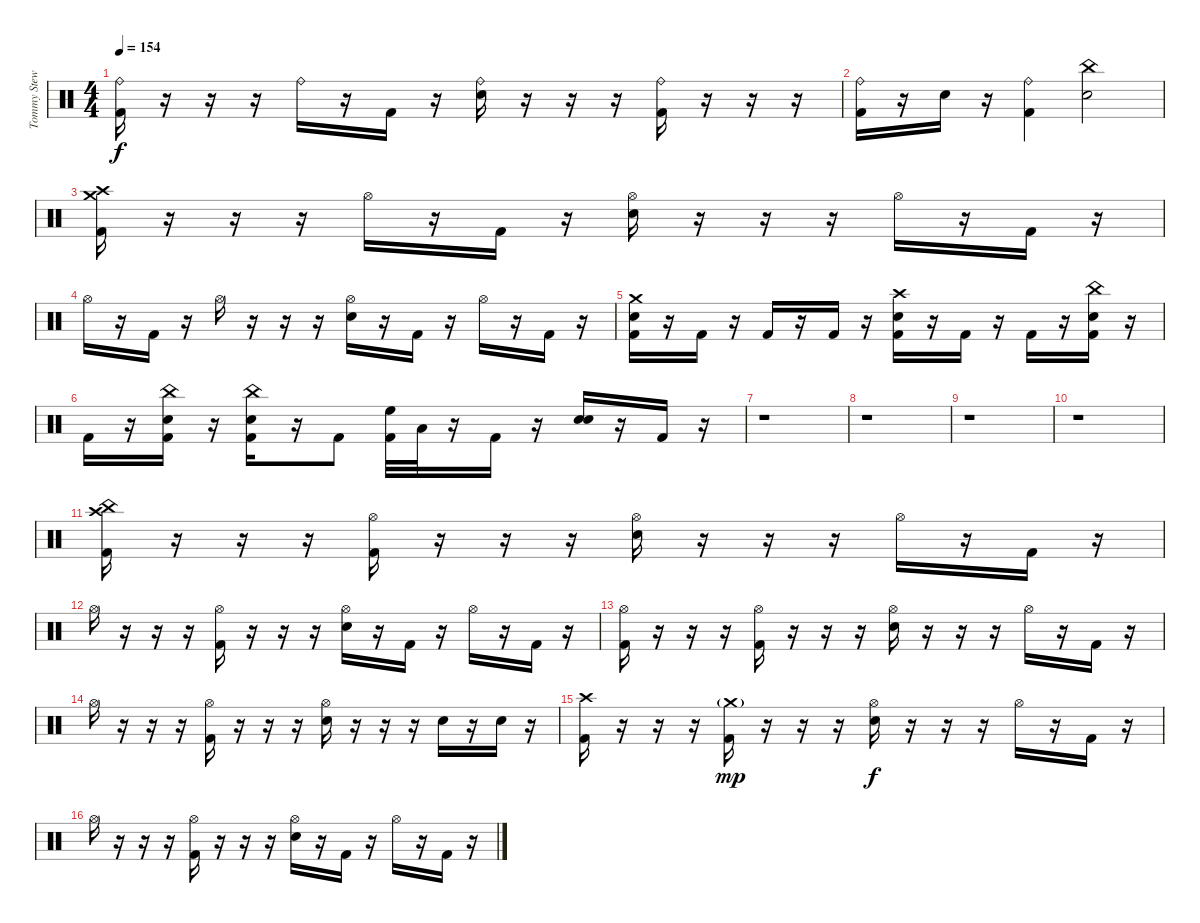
\track ("Tommy Stewart" "Tommy Stew") {instrument percussion}
\staff {score}
\articulation defaults
\ts (4 4)
\tempo 154
\clef neutral
\ks c
("Ride (bell)" "Kick (hit) 2").16{dy f} r.16 r.16 r.16 "Ride (bell)".16 r.16 "Kick (hit) 2".16 r.16 ("Ride (bell)" "Snare (hit) 2").16 r.16 r.16 r.16 ("Ride (bell)" "Kick (hit) 2").16 r.16 r.16 r.16 |
("Ride (bell)" "Kick (hit) 2").16 r.16 "Snare (hit) 2".16 r.16 ("Ride (bell)" "Kick (hit) 2").4 ("China (hit)" "Snare (hit) 2").2 |
("Crash high (hit)" "Crash medium (hit)" "Kick (hit) 2").16 r.16 r.16 r.16 "Hi-Hat (open)".16 r.16 "Kick (hit) 2".16 r.16 ("Hi-Hat (open)" "Snare (hit) 2").16 r.16 r.16 r.16 "Hi-Hat (open)".16 r.16 "Kick (hit) 2".16 r.16 |
"Hi-Hat (open)".16 r.16 "Kick (hit) 2".16 r.16 "Hi-Hat (open)".16 r.16 r.16 r.16 ("Hi-Hat (open)" "Snare (hit) 2").16 r.16 "Kick (hit) 2".16 r.16 "Hi-Hat (open)".16 r.16 "Kick (hit) 2".16 r.16 |
("Crash medium (hit)" "Snare (hit) 2" "Kick (hit) 2").16 r.16 "Kick (hit) 2".16 r.16 "Kick (hit) 2".16 r.16 "Kick (hit) 2".16 r.16 ("Crash high (hit)" "Snare (hit) 2" "Kick (hit) 2").16 r.16 "Kick (hit) 2".16 r.16 "Kick (hit) 2".16 r.16 ("China (hit)" "Snare (hit) 2" "Kick (hit) 2").16 r.16 |
"Kick (hit) 2".16 r.16 ("China (hit)" "Snare (hit) 2" "Kick (hit) 2").16 r.16 ("China (hit)" "Snare (hit) 2" "Kick (hit) 2").16 r.16 "Kick (hit) 2".8 ("High Floor Tom (hit)" "Kick (hit) 2").32 "Low Tom (hit)".32 r.16 "Kick (hit) 2".16 r.16 ("Snare (hit) 2" "Snare (hit) 2").16 r.16 "Kick (hit) 2".16 r.16 |
r.1 |
r.1 |
r.1 |
r.1 |
("Crash high (hit)" "China (hit)" "Kick (hit) 2").16 r.16 r.16 r.16 ("Hi-Hat (open)" "Kick (hit) 2").16 r.16 r.16 r.16 ("Hi-Hat (open)" "Snare (hit) 2").16 r.16 r.16 r.16 "Hi-Hat (open)".16 r.16 "Kick (hit) 2".16 r.16 |
"Hi-Hat (open)".16 r.16 r.16 r.16 ("Hi-Hat (open)" "Kick (hit) 2").16 r.16 r.16 r.16 ("Hi-Hat (open)" "Snare (hit) 2").16 r.16 "Kick (hit) 2".16 r.16 "Hi-Hat (open)".16 r.16 "Kick (hit) 2".16 r.16 |
("Hi-Hat (open)" "Kick (hit) 2").16 r.16 r.16 r.16 ("Hi-Hat (open)" "Kick (hit) 2").16 r.16 r.16 r.16 ("Hi-Hat (open)" "Snare (hit) 2").16 r.16 r.16 r.16 "Hi-Hat (open)".16 r.16 "Kick (hit) 2".16 r.16 |
"Hi-Hat (open)".16 r.16 r.16 r.16 ("Hi-Hat (open)" "Kick (hit) 2").16 r.16 r.16 r.16 ("Hi-Hat (open)" "Snare (hit) 2").16 r.16 r.16 r.16 "Snare (hit) 2".16 r.16 "Snare (hit) 2".16 r.16 |
("Crash high (hit)" "Kick (hit) 2").16 r.16 r.16 r.16 ("Crash medium (hit)"{g} "Kick (hit) 2").16{dy mp} r.16 r.16 r.16 ("Hi-Hat (open)" "Snare (hit) 2").16{dy f} r.16 r.16 r.16 "Hi-Hat (open)".16 r.16 "Kick (hit) 2".16 r.16 |
"Hi-Hat (open)".16 r.16 r.16 r.16 ("Hi-Hat (open)" "Kick (hit) 2").16 r.16 r.16 r.16 ("Hi-Hat (open)" "Snare (hit) 2").16 r.16 "Kick (hit) 2".16 r.16 "Hi-Hat (open)".16 r.16 "Kick (hit) 2".16 r.16
